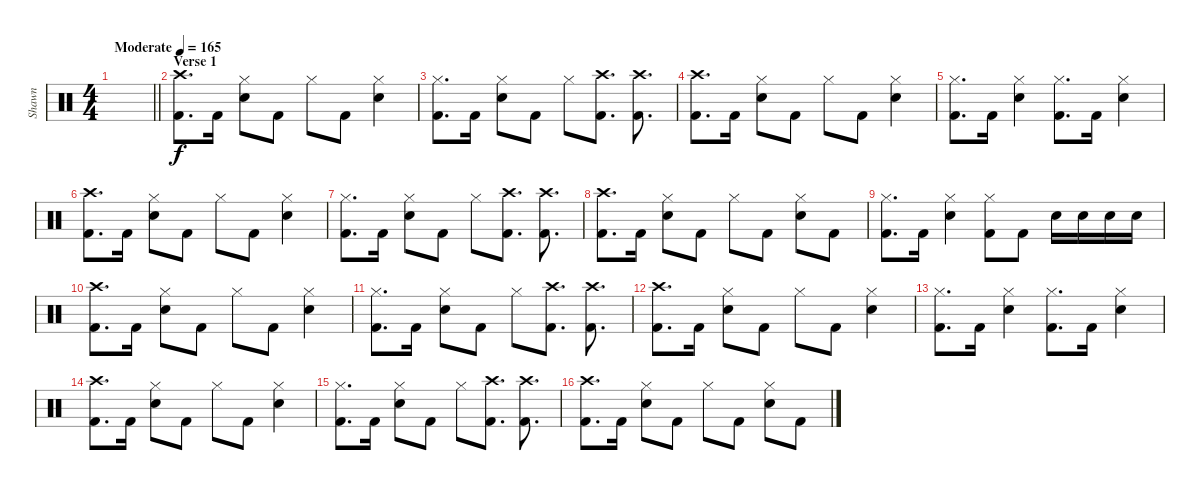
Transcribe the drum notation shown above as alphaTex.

\track ("Shawn" "Shawn") {instrument percussion}
\staff {score}
\articulation defaults
\ts (4 4)
\tempo (165 "Moderate")
\clef neutral
\barLineRight lightlight
\ks c
|
\section ("" "Verse 1")
("Crash high (hit)" "Kick (hit) 2").8{d} "Kick (hit) 2".16 ("Hi-Hat (closed)" "Snare (hit) 2").8 "Kick (hit) 2".8 "Hi-Hat (closed)".8 "Kick (hit) 2".8 ("Hi-Hat (closed)" "Snare (hit) 2").4 |
("Hi-Hat (closed)" "Kick (hit) 2").8{d} "Kick (hit) 2".16 ("Hi-Hat (closed)" "Snare (hit) 2").8 "Kick (hit) 2".8 "Hi-Hat (closed)".8 ("Crash high (hit)" "Kick (hit) 2").8{d} ("Crash high (hit)" "Kick (hit) 2").8{d} |
("Crash high (hit)" "Kick (hit) 2").8{d} "Kick (hit) 2".16 ("Hi-Hat (closed)" "Snare (hit) 2").8 "Kick (hit) 2".8 "Hi-Hat (closed)".8 "Kick (hit) 2".8 ("Hi-Hat (closed)" "Snare (hit) 2").4 |
("Hi-Hat (closed)" "Kick (hit) 2").8{d} "Kick (hit) 2".16 ("Hi-Hat (closed)" "Snare (hit) 2").4 ("Hi-Hat (closed)" "Kick (hit) 2").8{d} "Kick (hit) 2".16 ("Hi-Hat (closed)" "Snare (hit) 2").4 |
("Crash high (hit)" "Kick (hit) 2").8{d} "Kick (hit) 2".16 ("Hi-Hat (closed)" "Snare (hit) 2").8 "Kick (hit) 2".8 "Hi-Hat (closed)".8 "Kick (hit) 2".8 ("Hi-Hat (closed)" "Snare (hit) 2").4 |
("Hi-Hat (closed)" "Kick (hit) 2").8{d} "Kick (hit) 2".16 ("Hi-Hat (closed)" "Snare (hit) 2").8 "Kick (hit) 2".8 "Hi-Hat (closed)".8 ("Crash high (hit)" "Kick (hit) 2").8{d} ("Crash high (hit)" "Kick (hit) 2").8{d} |
("Crash high (hit)" "Kick (hit) 2").8{d} "Kick (hit) 2".16 ("Hi-Hat (closed)" "Snare (hit) 2").8 "Kick (hit) 2".8 "Hi-Hat (closed)".8 "Kick (hit) 2".8 ("Hi-Hat (closed)" "Snare (hit) 2").8 "Kick (hit) 2".8 |
("Hi-Hat (closed)" "Kick (hit) 2").8{d} "Kick (hit) 2".16 ("Hi-Hat (closed)" "Snare (hit) 2").4 ("Hi-Hat (closed)" "Kick (hit) 2").8 "Kick (hit) 2".8 "Snare (hit) 2".16 "Snare (hit) 2".16 "Snare (hit) 2".16 "Snare (hit) 2".16 |
("Crash high (hit)" "Kick (hit) 2").8{d} "Kick (hit) 2".16 ("Hi-Hat (closed)" "Snare (hit) 2").8 "Kick (hit) 2".8 "Hi-Hat (closed)".8 "Kick (hit) 2".8 ("Hi-Hat (closed)" "Snare (hit) 2").4 |
("Hi-Hat (closed)" "Kick (hit) 2").8{d} "Kick (hit) 2".16 ("Hi-Hat (closed)" "Snare (hit) 2").8 "Kick (hit) 2".8 "Hi-Hat (closed)".8 ("Crash high (hit)" "Kick (hit) 2").8{d} ("Crash high (hit)" "Kick (hit) 2").8{d} |
("Crash high (hit)" "Kick (hit) 2").8{d} "Kick (hit) 2".16 ("Hi-Hat (closed)" "Snare (hit) 2").8 "Kick (hit) 2".8 "Hi-Hat (closed)".8 "Kick (hit) 2".8 ("Hi-Hat (closed)" "Snare (hit) 2").4 |
("Hi-Hat (closed)" "Kick (hit) 2").8{d} "Kick (hit) 2".16 ("Hi-Hat (closed)" "Snare (hit) 2").4 ("Hi-Hat (closed)" "Kick (hit) 2").8{d} "Kick (hit) 2".16 ("Hi-Hat (closed)" "Snare (hit) 2").4 |
("Crash high (hit)" "Kick (hit) 2").8{d} "Kick (hit) 2".16 ("Hi-Hat (closed)" "Snare (hit) 2").8 "Kick (hit) 2".8 "Hi-Hat (closed)".8 "Kick (hit) 2".8 ("Hi-Hat (closed)" "Snare (hit) 2").4 |
("Hi-Hat (closed)" "Kick (hit) 2").8{d} "Kick (hit) 2".16 ("Hi-Hat (closed)" "Snare (hit) 2").8 "Kick (hit) 2".8 "Hi-Hat (closed)".8 ("Crash high (hit)" "Kick (hit) 2").8{d} ("Crash high (hit)" "Kick (hit) 2").8{d} |
("Crash high (hit)" "Kick (hit) 2").8{d} "Kick (hit) 2".16 ("Hi-Hat (closed)" "Snare (hit) 2").8 "Kick (hit) 2".8 "Hi-Hat (closed)".8 "Kick (hit) 2".8 ("Hi-Hat (closed)" "Snare (hit) 2").8 "Kick (hit) 2".8
